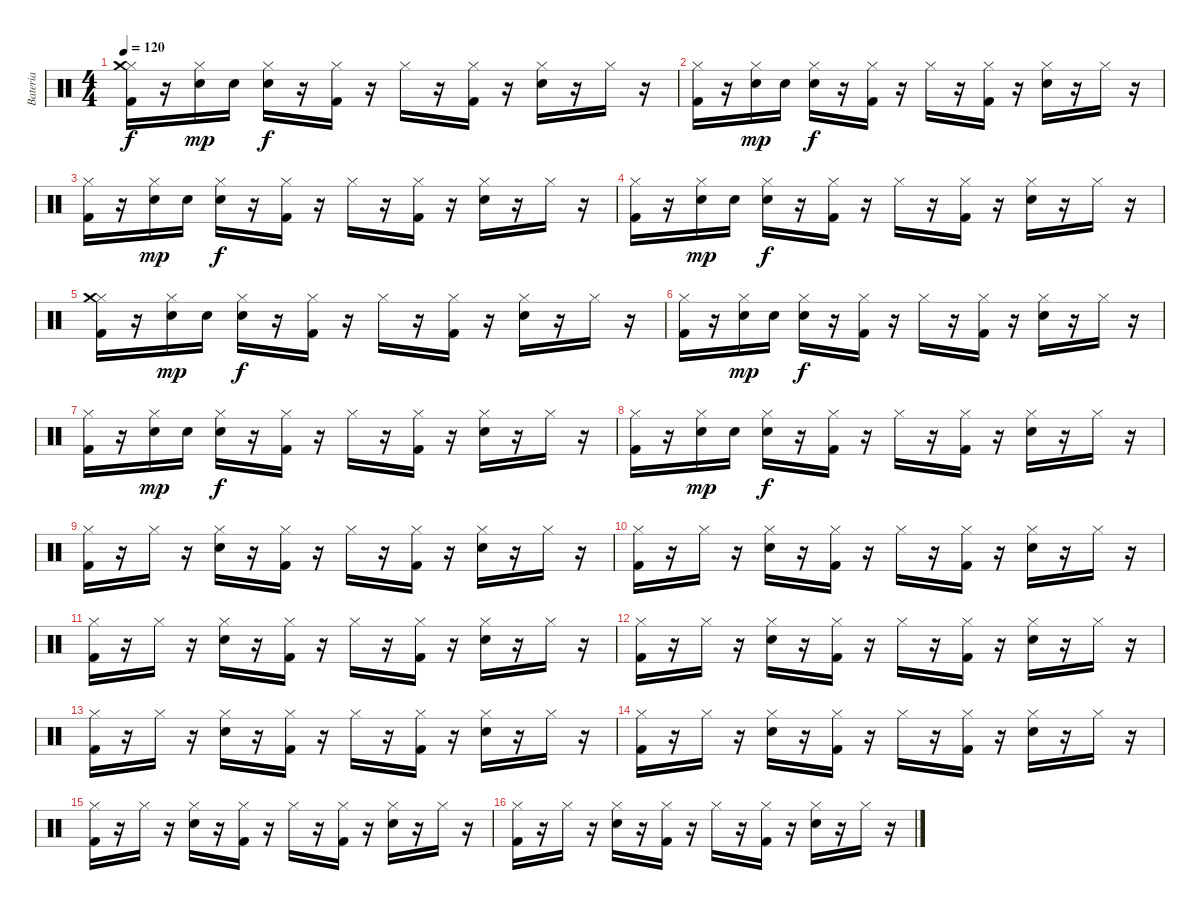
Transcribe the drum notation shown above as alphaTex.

\track ("Bateria" "Bateria") {instrument percussion}
\staff {score}
\articulation defaults
\ts (4 4)
\tempo 120
\clef neutral
\ks c
("Hi-Hat (closed)" "Crash medium (hit)" "Kick (hit) 2").16{dy f} r.16 ("Hi-Hat (closed)" "Snare (hit) 2").16{dy mp} "Snare (hit) 2".16 ("Hi-Hat (closed)" "Snare (hit) 2").16{dy f} r.16 ("Hi-Hat (closed)" "Kick (hit) 2").16 r.16 "Hi-Hat (closed)".16 r.16 ("Hi-Hat (closed)" "Kick (hit) 2").16 r.16 ("Hi-Hat (closed)" "Snare (hit) 2").16 r.16 "Hi-Hat (closed)".16 r.16 |
("Hi-Hat (closed)" "Kick (hit) 2").16 r.16 ("Hi-Hat (closed)" "Snare (hit) 2").16{dy mp} "Snare (hit) 2".16 ("Hi-Hat (closed)" "Snare (hit) 2").16{dy f} r.16 ("Hi-Hat (closed)" "Kick (hit) 2").16 r.16 "Hi-Hat (closed)".16 r.16 ("Hi-Hat (closed)" "Kick (hit) 2").16 r.16 ("Hi-Hat (closed)" "Snare (hit) 2").16 r.16 "Hi-Hat (closed)".16 r.16 |
("Hi-Hat (closed)" "Kick (hit) 2").16 r.16 ("Hi-Hat (closed)" "Snare (hit) 2").16{dy mp} "Snare (hit) 2".16 ("Hi-Hat (closed)" "Snare (hit) 2").16{dy f} r.16 ("Hi-Hat (closed)" "Kick (hit) 2").16 r.16 "Hi-Hat (closed)".16 r.16 ("Hi-Hat (closed)" "Kick (hit) 2").16 r.16 ("Hi-Hat (closed)" "Snare (hit) 2").16 r.16 "Hi-Hat (closed)".16 r.16 |
("Hi-Hat (closed)" "Kick (hit) 2").16 r.16 ("Hi-Hat (closed)" "Snare (hit) 2").16{dy mp} "Snare (hit) 2".16 ("Hi-Hat (closed)" "Snare (hit) 2").16{dy f} r.16 ("Hi-Hat (closed)" "Kick (hit) 2").16 r.16 "Hi-Hat (closed)".16 r.16 ("Hi-Hat (closed)" "Kick (hit) 2").16 r.16 ("Hi-Hat (closed)" "Snare (hit) 2").16 r.16 "Hi-Hat (closed)".16 r.16 |
("Hi-Hat (closed)" "Crash medium (hit)" "Kick (hit) 2").16 r.16 ("Hi-Hat (closed)" "Snare (hit) 2").16{dy mp} "Snare (hit) 2".16 ("Hi-Hat (closed)" "Snare (hit) 2").16{dy f} r.16 ("Hi-Hat (closed)" "Kick (hit) 2").16 r.16 "Hi-Hat (closed)".16 r.16 ("Hi-Hat (closed)" "Kick (hit) 2").16 r.16 ("Hi-Hat (closed)" "Snare (hit) 2").16 r.16 "Hi-Hat (closed)".16 r.16 |
("Hi-Hat (closed)" "Kick (hit) 2").16 r.16 ("Hi-Hat (closed)" "Snare (hit) 2").16{dy mp} "Snare (hit) 2".16 ("Hi-Hat (closed)" "Snare (hit) 2").16{dy f} r.16 ("Hi-Hat (closed)" "Kick (hit) 2").16 r.16 "Hi-Hat (closed)".16 r.16 ("Hi-Hat (closed)" "Kick (hit) 2").16 r.16 ("Hi-Hat (closed)" "Snare (hit) 2").16 r.16 "Hi-Hat (closed)".16 r.16 |
("Hi-Hat (closed)" "Kick (hit) 2").16 r.16 ("Hi-Hat (closed)" "Snare (hit) 2").16{dy mp} "Snare (hit) 2".16 ("Hi-Hat (closed)" "Snare (hit) 2").16{dy f} r.16 ("Hi-Hat (closed)" "Kick (hit) 2").16 r.16 "Hi-Hat (closed)".16 r.16 ("Hi-Hat (closed)" "Kick (hit) 2").16 r.16 ("Hi-Hat (closed)" "Snare (hit) 2").16 r.16 "Hi-Hat (closed)".16 r.16 |
("Hi-Hat (closed)" "Kick (hit) 2").16 r.16 ("Hi-Hat (closed)" "Snare (hit) 2").16{dy mp} "Snare (hit) 2".16 ("Hi-Hat (closed)" "Snare (hit) 2").16{dy f} r.16 ("Hi-Hat (closed)" "Kick (hit) 2").16 r.16 "Hi-Hat (closed)".16 r.16 ("Hi-Hat (closed)" "Kick (hit) 2").16 r.16 ("Hi-Hat (closed)" "Snare (hit) 2").16 r.16 "Hi-Hat (closed)".16 r.16 |
("Hi-Hat (closed)" "Kick (hit) 2").16 r.16 "Hi-Hat (closed)".16 r.16 ("Hi-Hat (closed)" "Snare (hit) 2").16 r.16 ("Hi-Hat (closed)" "Kick (hit) 2").16 r.16 "Hi-Hat (closed)".16 r.16 ("Hi-Hat (closed)" "Kick (hit) 2").16 r.16 ("Hi-Hat (closed)" "Snare (hit) 2").16 r.16 "Hi-Hat (closed)".16 r.16 |
("Hi-Hat (closed)" "Kick (hit) 2").16 r.16 "Hi-Hat (closed)".16 r.16 ("Hi-Hat (closed)" "Snare (hit) 2").16 r.16 ("Hi-Hat (closed)" "Kick (hit) 2").16 r.16 "Hi-Hat (closed)".16 r.16 ("Hi-Hat (closed)" "Kick (hit) 2").16 r.16 ("Hi-Hat (closed)" "Snare (hit) 2").16 r.16 "Hi-Hat (closed)".16 r.16 |
("Hi-Hat (closed)" "Kick (hit) 2").16 r.16 "Hi-Hat (closed)".16 r.16 ("Hi-Hat (closed)" "Snare (hit) 2").16 r.16 ("Hi-Hat (closed)" "Kick (hit) 2").16 r.16 "Hi-Hat (closed)".16 r.16 ("Hi-Hat (closed)" "Kick (hit) 2").16 r.16 ("Hi-Hat (closed)" "Snare (hit) 2").16 r.16 "Hi-Hat (closed)".16 r.16 |
("Hi-Hat (closed)" "Kick (hit) 2").16 r.16 "Hi-Hat (closed)".16 r.16 ("Hi-Hat (closed)" "Snare (hit) 2").16 r.16 ("Hi-Hat (closed)" "Kick (hit) 2").16 r.16 "Hi-Hat (closed)".16 r.16 ("Hi-Hat (closed)" "Kick (hit) 2").16 r.16 ("Hi-Hat (closed)" "Snare (hit) 2").16 r.16 "Hi-Hat (closed)".16 r.16 |
("Hi-Hat (closed)" "Kick (hit) 2").16 r.16 "Hi-Hat (closed)".16 r.16 ("Hi-Hat (closed)" "Snare (hit) 2").16 r.16 ("Hi-Hat (closed)" "Kick (hit) 2").16 r.16 "Hi-Hat (closed)".16 r.16 ("Hi-Hat (closed)" "Kick (hit) 2").16 r.16 ("Hi-Hat (closed)" "Snare (hit) 2").16 r.16 "Hi-Hat (closed)".16 r.16 |
("Hi-Hat (closed)" "Kick (hit) 2").16 r.16 "Hi-Hat (closed)".16 r.16 ("Hi-Hat (closed)" "Snare (hit) 2").16 r.16 ("Hi-Hat (closed)" "Kick (hit) 2").16 r.16 "Hi-Hat (closed)".16 r.16 ("Hi-Hat (closed)" "Kick (hit) 2").16 r.16 ("Hi-Hat (closed)" "Snare (hit) 2").16 r.16 "Hi-Hat (closed)".16 r.16 |
("Hi-Hat (closed)" "Kick (hit) 2").16 r.16 "Hi-Hat (closed)".16 r.16 ("Hi-Hat (closed)" "Snare (hit) 2").16 r.16 ("Hi-Hat (closed)" "Kick (hit) 2").16 r.16 "Hi-Hat (closed)".16 r.16 ("Hi-Hat (closed)" "Kick (hit) 2").16 r.16 ("Hi-Hat (closed)" "Snare (hit) 2").16 r.16 "Hi-Hat (closed)".16 r.16 |
("Hi-Hat (closed)" "Kick (hit) 2").16 r.16 "Hi-Hat (closed)".16 r.16 ("Hi-Hat (closed)" "Snare (hit) 2").16 r.16 ("Hi-Hat (closed)" "Kick (hit) 2").16 r.16 "Hi-Hat (closed)".16 r.16 ("Hi-Hat (closed)" "Kick (hit) 2").16 r.16 ("Hi-Hat (closed)" "Snare (hit) 2").16 r.16 "Hi-Hat (closed)".16 r.16
